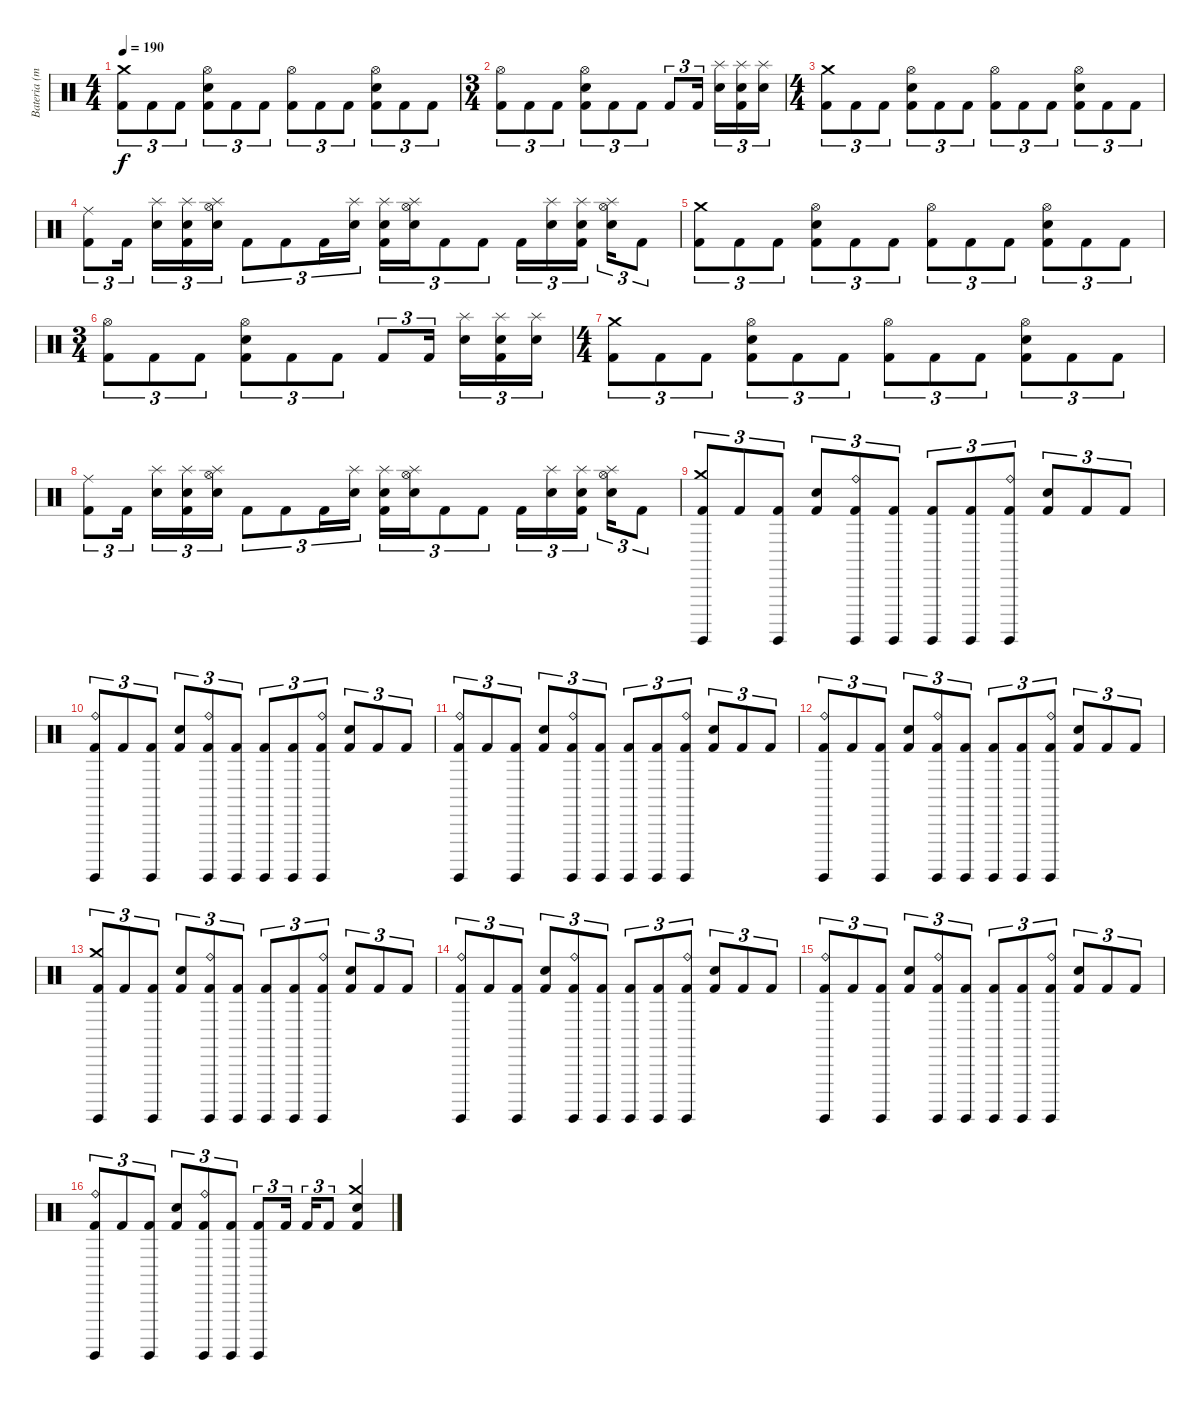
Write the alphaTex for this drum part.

\track ("Bateria (mestre Aquiles Priester)" "Bateria (m") {instrument percussion}
\staff {score}
\articulation defaults
\ts (4 4)
\tempo 190
\clef neutral
\ks c
("Kick (hit) 2" "Crash medium (hit)").8{tu (3 2) dy f} "Kick (hit) 2".8{tu (3 2)} "Kick (hit) 2".8{tu (3 2)} ("Kick (hit) 2" "Electric Snare (hit)" "Hi-Hat (open)").8{tu (3 2)} "Kick (hit) 2".8{tu (3 2)} "Kick (hit) 2".8{tu (3 2)} ("Kick (hit) 2" "Hi-Hat (open)").8{tu (3 2)} "Kick (hit) 2".8{tu (3 2)} "Kick (hit) 2".8{tu (3 2)} ("Kick (hit) 2" "Electric Snare (hit)" "Hi-Hat (open)").8{tu (3 2)} "Kick (hit) 2".8{tu (3 2)} "Kick (hit) 2".8{tu (3 2)} |
\ts (3 4)
("Kick (hit) 2" "Hi-Hat (open)").8{tu (3 2)} "Kick (hit) 2".8{tu (3 2)} "Kick (hit) 2".8{tu (3 2)} ("Kick (hit) 2" "Electric Snare (hit)" "Hi-Hat (open)").8{tu (3 2)} "Kick (hit) 2".8{tu (3 2)} "Kick (hit) 2".8{tu (3 2)} "Kick (hit) 2".8{tu (3 2)} "Kick (hit) 2".16{tu (3 2)} ("Snare (hit) 2" "Splash (hit)").16{tu (3 2)} ("Kick (hit) 2" "Snare (hit) 2" "Splash (hit)").16{tu (3 2)} ("Snare (hit) 2" "Splash (hit)").16{tu (3 2)} |
\ts (4 4)
("Kick (hit) 2" "Crash medium (hit)").8{tu (3 2)} "Kick (hit) 2".8{tu (3 2)} "Kick (hit) 2".8{tu (3 2)} ("Kick (hit) 2" "Electric Snare (hit)" "Hi-Hat (open)").8{tu (3 2)} "Kick (hit) 2".8{tu (3 2)} "Kick (hit) 2".8{tu (3 2)} ("Kick (hit) 2" "Hi-Hat (open)").8{tu (3 2)} "Kick (hit) 2".8{tu (3 2)} "Kick (hit) 2".8{tu (3 2)} ("Kick (hit) 2" "Electric Snare (hit)" "Hi-Hat (open)").8{tu (3 2)} "Kick (hit) 2".8{tu (3 2)} "Kick (hit) 2".8{tu (3 2)} |
("Kick (hit) 2" "Ride (middle)").8{tu (3 2)} "Kick (hit) 2".16{tu (3 2)} ("Snare (hit) 2" "Splash (hit)").16{tu (3 2)} ("Kick (hit) 2" "Snare (hit) 2" "Splash (hit)").16{tu (3 2)} ("Snare (hit) 2" "Splash (hit)" "Hi-Hat (open)").16{tu (3 2)} "Kick (hit) 2".8{tu (3 2)} "Kick (hit) 2".8{tu (3 2)} "Kick (hit) 2".16{tu (3 2)} ("Snare (hit) 2" "Splash (hit)").16{tu (3 2)} ("Kick (hit) 2" "Snare (hit) 2" "Splash (hit)").16{tu (3 2)} ("Snare (hit) 2" "Splash (hit)" "Hi-Hat (open)").16{tu (3 2)} "Kick (hit) 2".8{tu (3 2)} "Kick (hit) 2".8{tu (3 2)} "Kick (hit) 2".16{tu (3 2)} ("Snare (hit) 2" "Splash (hit)").16{tu (3 2)} ("Kick (hit) 2" "Snare (hit) 2" "Splash (hit)").16{tu (3 2)} ("Snare (hit) 2" "Splash (hit)" "Hi-Hat (open)").16{tu (3 2)} "Kick (hit) 2".8{tu (3 2)} |
("Kick (hit) 2" "Crash medium (hit)").8{tu (3 2)} "Kick (hit) 2".8{tu (3 2)} "Kick (hit) 2".8{tu (3 2)} ("Kick (hit) 2" "Electric Snare (hit)" "Hi-Hat (open)").8{tu (3 2)} "Kick (hit) 2".8{tu (3 2)} "Kick (hit) 2".8{tu (3 2)} ("Kick (hit) 2" "Hi-Hat (open)").8{tu (3 2)} "Kick (hit) 2".8{tu (3 2)} "Kick (hit) 2".8{tu (3 2)} ("Kick (hit) 2" "Electric Snare (hit)" "Hi-Hat (open)").8{tu (3 2)} "Kick (hit) 2".8{tu (3 2)} "Kick (hit) 2".8{tu (3 2)} |
\ts (3 4)
("Kick (hit) 2" "Hi-Hat (open)").8{tu (3 2)} "Kick (hit) 2".8{tu (3 2)} "Kick (hit) 2".8{tu (3 2)} ("Kick (hit) 2" "Electric Snare (hit)" "Hi-Hat (open)").8{tu (3 2)} "Kick (hit) 2".8{tu (3 2)} "Kick (hit) 2".8{tu (3 2)} "Kick (hit) 2".8{tu (3 2)} "Kick (hit) 2".16{tu (3 2)} ("Snare (hit) 2" "Splash (hit)").16{tu (3 2)} ("Kick (hit) 2" "Snare (hit) 2" "Splash (hit)").16{tu (3 2)} ("Snare (hit) 2" "Splash (hit)").16{tu (3 2)} |
\ts (4 4)
("Kick (hit) 2" "Crash medium (hit)").8{tu (3 2)} "Kick (hit) 2".8{tu (3 2)} "Kick (hit) 2".8{tu (3 2)} ("Kick (hit) 2" "Electric Snare (hit)" "Hi-Hat (open)").8{tu (3 2)} "Kick (hit) 2".8{tu (3 2)} "Kick (hit) 2".8{tu (3 2)} ("Kick (hit) 2" "Hi-Hat (open)").8{tu (3 2)} "Kick (hit) 2".8{tu (3 2)} "Kick (hit) 2".8{tu (3 2)} ("Kick (hit) 2" "Electric Snare (hit)" "Hi-Hat (open)").8{tu (3 2)} "Kick (hit) 2".8{tu (3 2)} "Kick (hit) 2".8{tu (3 2)} |
("Kick (hit) 2" "Ride (middle)").8{tu (3 2)} "Kick (hit) 2".16{tu (3 2)} ("Snare (hit) 2" "Splash (hit)").16{tu (3 2)} ("Kick (hit) 2" "Snare (hit) 2" "Splash (hit)").16{tu (3 2)} ("Snare (hit) 2" "Splash (hit)" "Hi-Hat (open)").16{tu (3 2)} "Kick (hit) 2".8{tu (3 2)} "Kick (hit) 2".8{tu (3 2)} "Kick (hit) 2".16{tu (3 2)} ("Snare (hit) 2" "Splash (hit)").16{tu (3 2)} ("Kick (hit) 2" "Snare (hit) 2" "Splash (hit)").16{tu (3 2)} ("Snare (hit) 2" "Splash (hit)" "Hi-Hat (open)").16{tu (3 2)} "Kick (hit) 2".8{tu (3 2)} "Kick (hit) 2".8{tu (3 2)} "Kick (hit) 2".16{tu (3 2)} ("Snare (hit) 2" "Splash (hit)").16{tu (3 2)} ("Kick (hit) 2" "Snare (hit) 2" "Splash (hit)").16{tu (3 2)} ("Snare (hit) 2" "Splash (hit)" "Hi-Hat (open)").16{tu (3 2)} "Kick (hit) 2".8{tu (3 2)} |
("Kick (hit) 2" "Surdo (hit)" "Crash medium (hit)").8{tu (3 2)} "Kick (hit) 2".8{tu (3 2)} ("Kick (hit) 2" "Surdo (hit)").8{tu (3 2)} ("Kick (hit) 2" "Electric Snare (hit)").8{tu (3 2)} ("Kick (hit) 2" "Surdo (hit)" "Ride (bell)").8{tu (3 2)} ("Kick (hit) 2" "Surdo (hit)").8{tu (3 2)} ("Kick (hit) 2" "Surdo (hit)").8{tu (3 2)} ("Kick (hit) 2" "Surdo (hit)").8{tu (3 2)} ("Kick (hit) 2" "Surdo (hit)" "Ride (bell)").8{tu (3 2)} ("Kick (hit) 2" "Electric Snare (hit)").8{tu (3 2)} "Kick (hit) 2".8{tu (3 2)} "Kick (hit) 2".8{tu (3 2)} |
("Kick (hit) 2" "Surdo (hit)" "Ride (bell)").8{tu (3 2)} "Kick (hit) 2".8{tu (3 2)} ("Kick (hit) 2" "Surdo (hit)").8{tu (3 2)} ("Kick (hit) 2" "Electric Snare (hit)").8{tu (3 2)} ("Kick (hit) 2" "Surdo (hit)" "Ride (bell)").8{tu (3 2)} ("Kick (hit) 2" "Surdo (hit)").8{tu (3 2)} ("Kick (hit) 2" "Surdo (hit)").8{tu (3 2)} ("Kick (hit) 2" "Surdo (hit)").8{tu (3 2)} ("Kick (hit) 2" "Surdo (hit)" "Ride (bell)").8{tu (3 2)} ("Kick (hit) 2" "Electric Snare (hit)").8{tu (3 2)} "Kick (hit) 2".8{tu (3 2)} "Kick (hit) 2".8{tu (3 2)} |
("Kick (hit) 2" "Surdo (hit)" "Ride (bell)").8{tu (3 2)} "Kick (hit) 2".8{tu (3 2)} ("Kick (hit) 2" "Surdo (hit)").8{tu (3 2)} ("Kick (hit) 2" "Electric Snare (hit)").8{tu (3 2)} ("Kick (hit) 2" "Surdo (hit)" "Ride (bell)").8{tu (3 2)} ("Kick (hit) 2" "Surdo (hit)").8{tu (3 2)} ("Kick (hit) 2" "Surdo (hit)").8{tu (3 2)} ("Kick (hit) 2" "Surdo (hit)").8{tu (3 2)} ("Kick (hit) 2" "Surdo (hit)" "Ride (bell)").8{tu (3 2)} ("Kick (hit) 2" "Electric Snare (hit)").8{tu (3 2)} "Kick (hit) 2".8{tu (3 2)} "Kick (hit) 2".8{tu (3 2)} |
("Kick (hit) 2" "Surdo (hit)" "Ride (bell)").8{tu (3 2)} "Kick (hit) 2".8{tu (3 2)} ("Kick (hit) 2" "Surdo (hit)").8{tu (3 2)} ("Kick (hit) 2" "Electric Snare (hit)").8{tu (3 2)} ("Kick (hit) 2" "Surdo (hit)" "Ride (bell)").8{tu (3 2)} ("Kick (hit) 2" "Surdo (hit)").8{tu (3 2)} ("Kick (hit) 2" "Surdo (hit)").8{tu (3 2)} ("Kick (hit) 2" "Surdo (hit)").8{tu (3 2)} ("Kick (hit) 2" "Surdo (hit)" "Ride (bell)").8{tu (3 2)} ("Kick (hit) 2" "Electric Snare (hit)").8{tu (3 2)} "Kick (hit) 2".8{tu (3 2)} "Kick (hit) 2".8{tu (3 2)} |
("Kick (hit) 2" "Surdo (hit)" "Crash medium (hit)").8{tu (3 2)} "Kick (hit) 2".8{tu (3 2)} ("Kick (hit) 2" "Surdo (hit)").8{tu (3 2)} ("Kick (hit) 2" "Electric Snare (hit)").8{tu (3 2)} ("Kick (hit) 2" "Surdo (hit)" "Ride (bell)").8{tu (3 2)} ("Kick (hit) 2" "Surdo (hit)").8{tu (3 2)} ("Kick (hit) 2" "Surdo (hit)").8{tu (3 2)} ("Kick (hit) 2" "Surdo (hit)").8{tu (3 2)} ("Kick (hit) 2" "Surdo (hit)" "Ride (bell)").8{tu (3 2)} ("Kick (hit) 2" "Electric Snare (hit)").8{tu (3 2)} "Kick (hit) 2".8{tu (3 2)} "Kick (hit) 2".8{tu (3 2)} |
("Kick (hit) 2" "Surdo (hit)" "Ride (bell)").8{tu (3 2)} "Kick (hit) 2".8{tu (3 2)} ("Kick (hit) 2" "Surdo (hit)").8{tu (3 2)} ("Kick (hit) 2" "Electric Snare (hit)").8{tu (3 2)} ("Kick (hit) 2" "Surdo (hit)" "Ride (bell)").8{tu (3 2)} ("Kick (hit) 2" "Surdo (hit)").8{tu (3 2)} ("Kick (hit) 2" "Surdo (hit)").8{tu (3 2)} ("Kick (hit) 2" "Surdo (hit)").8{tu (3 2)} ("Kick (hit) 2" "Surdo (hit)" "Ride (bell)").8{tu (3 2)} ("Kick (hit) 2" "Electric Snare (hit)").8{tu (3 2)} "Kick (hit) 2".8{tu (3 2)} "Kick (hit) 2".8{tu (3 2)} |
("Kick (hit) 2" "Surdo (hit)" "Ride (bell)").8{tu (3 2)} "Kick (hit) 2".8{tu (3 2)} ("Kick (hit) 2" "Surdo (hit)").8{tu (3 2)} ("Kick (hit) 2" "Electric Snare (hit)").8{tu (3 2)} ("Kick (hit) 2" "Surdo (hit)" "Ride (bell)").8{tu (3 2)} ("Kick (hit) 2" "Surdo (hit)").8{tu (3 2)} ("Kick (hit) 2" "Surdo (hit)").8{tu (3 2)} ("Kick (hit) 2" "Surdo (hit)").8{tu (3 2)} ("Kick (hit) 2" "Surdo (hit)" "Ride (bell)").8{tu (3 2)} ("Kick (hit) 2" "Electric Snare (hit)").8{tu (3 2)} "Kick (hit) 2".8{tu (3 2)} "Kick (hit) 2".8{tu (3 2)} |
("Kick (hit) 2" "Surdo (hit)" "Ride (bell)").8{tu (3 2)} "Kick (hit) 2".8{tu (3 2)} ("Kick (hit) 2" "Surdo (hit)").8{tu (3 2)} ("Kick (hit) 2" "Electric Snare (hit)").8{tu (3 2)} ("Kick (hit) 2" "Surdo (hit)" "Ride (bell)").8{tu (3 2)} ("Kick (hit) 2" "Surdo (hit)").8{tu (3 2)} ("Kick (hit) 2" "Surdo (hit)").8{tu (3 2)} "Kick (hit) 2".16{tu (3 2)} "Kick (hit) 2".16{tu (3 2)} "Kick (hit) 2".8{tu (3 2)} ("Kick (hit) 2" "Electric Snare (hit)" "Crash medium (hit)").4
